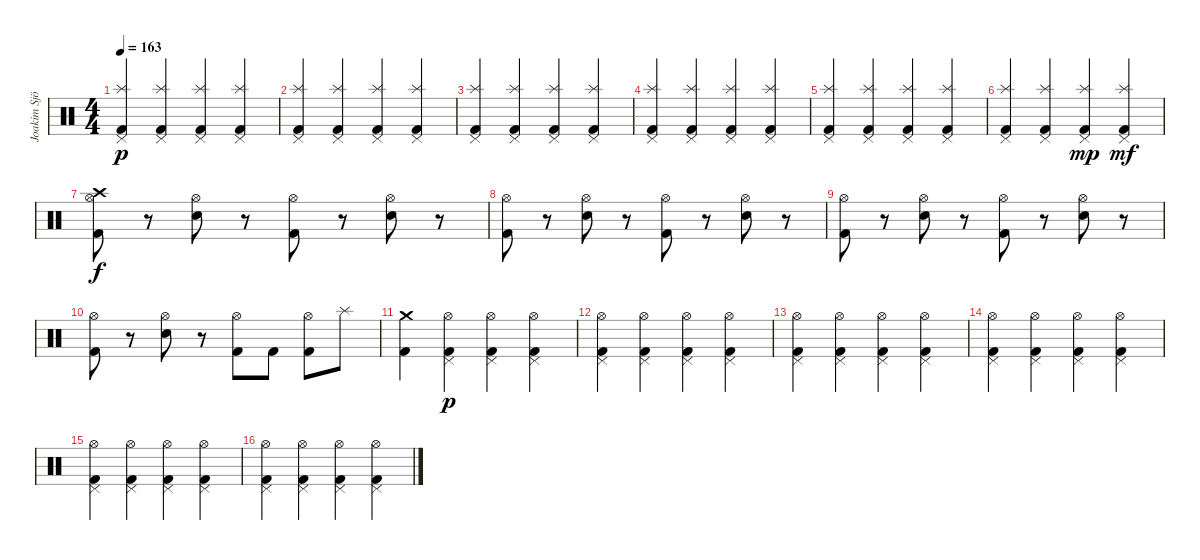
\track ("Joakim Sjöberg" "Joakim Sjö") {instrument percussion}
\staff {score}
\articulation defaults
\ts (4 4)
\tempo 163
\clef neutral
\ks c
("Pedal Hi-Hat (hit)" "Splash (hit)" "Kick (hit) 2").4{dy p} ("Pedal Hi-Hat (hit)" "Splash (hit)" "Kick (hit) 2").4 ("Pedal Hi-Hat (hit)" "Splash (hit)" "Kick (hit) 2").4 ("Pedal Hi-Hat (hit)" "Splash (hit)" "Kick (hit) 2").4 |
("Pedal Hi-Hat (hit)" "Splash (hit)" "Kick (hit) 2").4 ("Pedal Hi-Hat (hit)" "Splash (hit)" "Kick (hit) 2").4 ("Pedal Hi-Hat (hit)" "Splash (hit)" "Kick (hit) 2").4 ("Pedal Hi-Hat (hit)" "Splash (hit)" "Kick (hit) 2").4 |
("Pedal Hi-Hat (hit)" "Splash (hit)" "Kick (hit) 2").4 ("Pedal Hi-Hat (hit)" "Splash (hit)" "Kick (hit) 2").4 ("Pedal Hi-Hat (hit)" "Splash (hit)" "Kick (hit) 2").4 ("Pedal Hi-Hat (hit)" "Splash (hit)" "Kick (hit) 2").4 |
("Pedal Hi-Hat (hit)" "Splash (hit)" "Kick (hit) 2").4 ("Pedal Hi-Hat (hit)" "Splash (hit)" "Kick (hit) 2").4 ("Pedal Hi-Hat (hit)" "Splash (hit)" "Kick (hit) 2").4 ("Pedal Hi-Hat (hit)" "Splash (hit)" "Kick (hit) 2").4 |
("Pedal Hi-Hat (hit)" "Splash (hit)" "Kick (hit) 2").4 ("Pedal Hi-Hat (hit)" "Splash (hit)" "Kick (hit) 2").4 ("Pedal Hi-Hat (hit)" "Splash (hit)" "Kick (hit) 2").4 ("Pedal Hi-Hat (hit)" "Splash (hit)" "Kick (hit) 2").4 |
("Pedal Hi-Hat (hit)" "Splash (hit)" "Kick (hit) 2").4 ("Pedal Hi-Hat (hit)" "Splash (hit)" "Kick (hit) 2").4 ("Pedal Hi-Hat (hit)" "Splash (hit)" "Kick (hit) 2").4{dy mp} ("Pedal Hi-Hat (hit)" "Splash (hit)" "Kick (hit) 2").4{dy mf} |
("Crash high (hit)" "Hi-Hat (open)" "Kick (hit) 2").8{dy f} r.8 ("Hi-Hat (open)" "Electric Snare (hit)").8 r.8 ("Hi-Hat (open)" "Kick (hit) 2").8 r.8 ("Hi-Hat (open)" "Electric Snare (hit)").8 r.8 |
("Hi-Hat (open)" "Kick (hit) 2").8 r.8 ("Hi-Hat (open)" "Electric Snare (hit)").8 r.8 ("Hi-Hat (open)" "Kick (hit) 2").8 r.8 ("Hi-Hat (open)" "Electric Snare (hit)").8 r.8 |
("Hi-Hat (open)" "Kick (hit) 2").8 r.8 ("Hi-Hat (open)" "Electric Snare (hit)").8 r.8 ("Hi-Hat (open)" "Kick (hit) 2").8 r.8 ("Hi-Hat (open)" "Electric Snare (hit)").8 r.8 |
("Hi-Hat (open)" "Kick (hit) 2").8 r.8 ("Hi-Hat (open)" "Electric Snare (hit)").8 r.8 ("Hi-Hat (open)" "Kick (hit) 2").8 "Kick (hit) 2".8 ("Hi-Hat (open)" "Kick (hit) 2").8 "Splash (hit)".8 |
("Crash medium (hit)" "Kick (hit) 2").4 ("Pedal Hi-Hat (hit)" "Hi-Hat (open)" "Kick (hit) 2").4{dy p} ("Pedal Hi-Hat (hit)" "Hi-Hat (open)" "Kick (hit) 2").4 ("Pedal Hi-Hat (hit)" "Hi-Hat (open)" "Kick (hit) 2").4 |
("Pedal Hi-Hat (hit)" "Hi-Hat (open)" "Kick (hit) 2").4 ("Pedal Hi-Hat (hit)" "Hi-Hat (open)" "Kick (hit) 2").4 ("Pedal Hi-Hat (hit)" "Hi-Hat (open)" "Kick (hit) 2").4 ("Pedal Hi-Hat (hit)" "Hi-Hat (open)" "Kick (hit) 2").4 |
("Pedal Hi-Hat (hit)" "Hi-Hat (open)" "Kick (hit) 2").4 ("Pedal Hi-Hat (hit)" "Hi-Hat (open)" "Kick (hit) 2").4 ("Pedal Hi-Hat (hit)" "Hi-Hat (open)" "Kick (hit) 2").4 ("Pedal Hi-Hat (hit)" "Hi-Hat (open)" "Kick (hit) 2").4 |
("Pedal Hi-Hat (hit)" "Hi-Hat (open)" "Kick (hit) 2").4 ("Pedal Hi-Hat (hit)" "Hi-Hat (open)" "Kick (hit) 2").4 ("Pedal Hi-Hat (hit)" "Hi-Hat (open)" "Kick (hit) 2").4 ("Pedal Hi-Hat (hit)" "Hi-Hat (open)" "Kick (hit) 2").4 |
("Pedal Hi-Hat (hit)" "Hi-Hat (open)" "Kick (hit) 2").4 ("Pedal Hi-Hat (hit)" "Hi-Hat (open)" "Kick (hit) 2").4 ("Pedal Hi-Hat (hit)" "Hi-Hat (open)" "Kick (hit) 2").4 ("Pedal Hi-Hat (hit)" "Hi-Hat (open)" "Kick (hit) 2").4 |
("Pedal Hi-Hat (hit)" "Hi-Hat (open)" "Kick (hit) 2").4 ("Pedal Hi-Hat (hit)" "Hi-Hat (open)" "Kick (hit) 2").4 ("Pedal Hi-Hat (hit)" "Hi-Hat (open)" "Kick (hit) 2").4 ("Pedal Hi-Hat (hit)" "Hi-Hat (open)" "Kick (hit) 2").4
